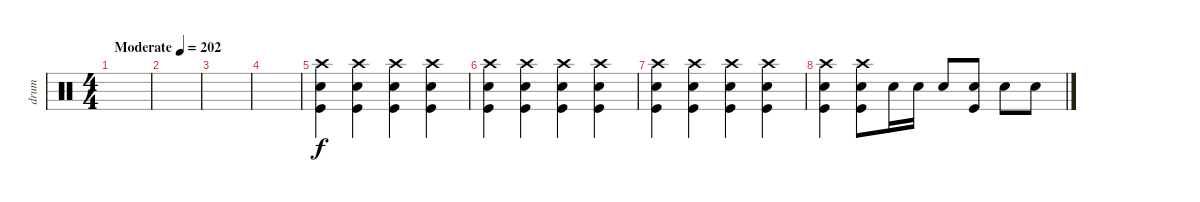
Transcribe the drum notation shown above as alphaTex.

\track ("drum" "drum") {instrument percussion}
\staff {score}
\articulation defaults
\ts (4 4)
\tempo (202 "Moderate")
\clef neutral
\ks c
|
|
|
|
("Crash high (hit)" "Electric Snare (hit)" "Kick (hit)").4 ("Crash high (hit)" "Electric Snare (hit)" "Kick (hit)").4 ("Crash high (hit)" "Electric Snare (hit)" "Kick (hit)").4 ("Crash high (hit)" "Electric Snare (hit)" "Kick (hit)").4 |
("Crash high (hit)" "Electric Snare (hit)" "Kick (hit)").4 ("Crash high (hit)" "Electric Snare (hit)" "Kick (hit)").4 ("Crash high (hit)" "Electric Snare (hit)" "Kick (hit)").4 ("Crash high (hit)" "Electric Snare (hit)" "Kick (hit)").4 |
("Crash high (hit)" "Electric Snare (hit)" "Kick (hit)").4 ("Crash high (hit)" "Electric Snare (hit)" "Kick (hit)").4 ("Crash high (hit)" "Electric Snare (hit)" "Kick (hit)").4 ("Crash high (hit)" "Electric Snare (hit)" "Kick (hit)").4 |
("Crash high (hit)" "Electric Snare (hit)" "Kick (hit)").4 ("Crash high (hit)" "Electric Snare (hit)" "Kick (hit)").8 "Electric Snare (hit)".16 "Electric Snare (hit)".16 "Electric Snare (hit)".8 ("Electric Snare (hit)" "Kick (hit)").8 "Electric Snare (hit)".8 "Electric Snare (hit)".8
